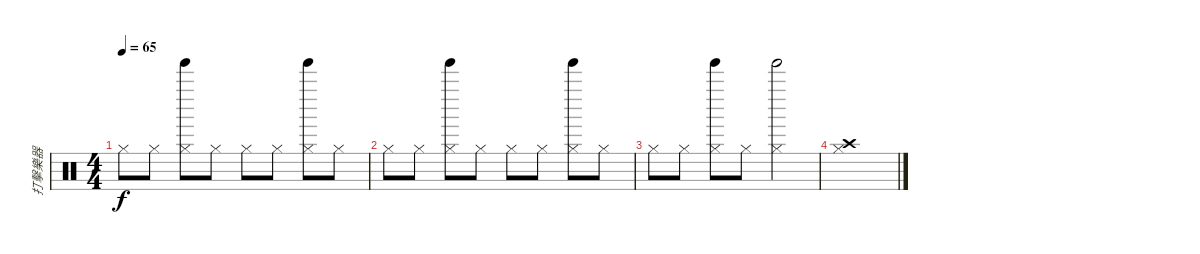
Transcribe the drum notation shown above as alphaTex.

\track ("打擊樂器" "打擊樂器") {instrument percussion}
\staff {score}
\articulation defaults
\ts (4 4)
\tempo 65
\clef neutral
\ks c "Hi-Hat (closed)".8{dy f} "Hi-Hat (closed)".8
("Tinkle Bell (hit)" "Hi-Hat (closed)").8 "Hi-Hat (closed)".8 "Hi-Hat (closed)".8 "Hi-Hat (closed)".8 ("Tinkle Bell (hit)" "Hi-Hat (closed)").8 "Hi-Hat (closed)".8 |
"Hi-Hat (closed)".8 "Hi-Hat (closed)".8 ("Tinkle Bell (hit)" "Hi-Hat (closed)").8 "Hi-Hat (closed)".8 "Hi-Hat (closed)".8 "Hi-Hat (closed)".8 ("Tinkle Bell (hit)" "Hi-Hat (closed)").8 "Hi-Hat (closed)".8 |
"Hi-Hat (closed)".8 "Hi-Hat (closed)".8 ("Tinkle Bell (hit)" "Hi-Hat (closed)").8 "Hi-Hat (closed)".8 ("Tinkle Bell (hit)" "Hi-Hat (closed)").2 |
("Crash high (hit)" "Hi-Hat (closed)").1
